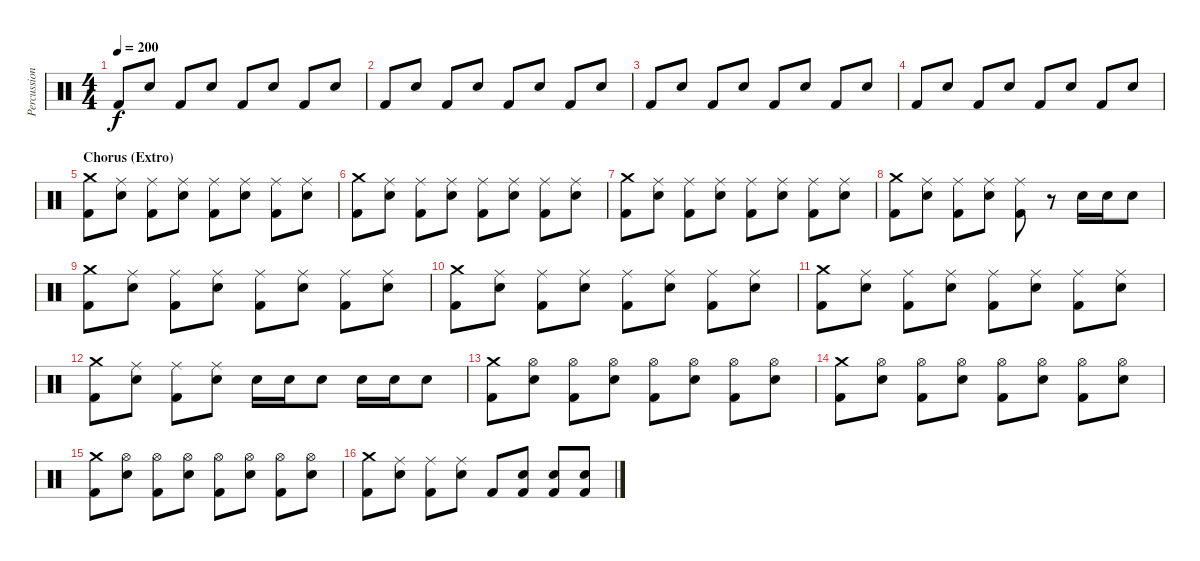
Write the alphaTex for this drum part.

\track ("Percussion" "Percussion") {instrument percussion}
\staff {score}
\articulation defaults
\ts (4 4)
\tempo 200
\clef neutral
\ks c "Kick (hit) 2".8{dy f} "Snare (hit) 2".8 "Kick (hit) 2".8 "Snare (hit) 2".8 "Kick (hit) 2".8 "Snare (hit) 2".8 "Kick (hit) 2".8 "Snare (hit) 2".8
|
"Kick (hit) 2".8 "Snare (hit) 2".8 "Kick (hit) 2".8 "Snare (hit) 2".8 "Kick (hit) 2".8 "Snare (hit) 2".8 "Kick (hit) 2".8 "Snare (hit) 2".8 |
"Kick (hit) 2".8 "Snare (hit) 2".8 "Kick (hit) 2".8 "Snare (hit) 2".8 "Kick (hit) 2".8 "Snare (hit) 2".8 "Kick (hit) 2".8 "Snare (hit) 2".8 |
"Kick (hit) 2".8 "Snare (hit) 2".8 "Kick (hit) 2".8 "Snare (hit) 2".8 "Kick (hit) 2".8 "Snare (hit) 2".8 "Kick (hit) 2".8 "Snare (hit) 2".8 |
\section ("" "Chorus (Extro)")
("Crash medium (hit)" "Kick (hit) 2").8 ("Ride (middle)" "Snare (hit) 2").8 ("Ride (middle)" "Kick (hit) 2").8 ("Ride (middle)" "Snare (hit) 2").8 ("Ride (middle)" "Kick (hit) 2").8 ("Ride (middle)" "Snare (hit) 2").8 ("Ride (middle)" "Kick (hit) 2").8 ("Ride (middle)" "Snare (hit) 2").8 |
("Crash medium (hit)" "Kick (hit) 2").8 ("Ride (middle)" "Snare (hit) 2").8 ("Ride (middle)" "Kick (hit) 2").8 ("Ride (middle)" "Snare (hit) 2").8 ("Ride (middle)" "Kick (hit) 2").8 ("Ride (middle)" "Snare (hit) 2").8 ("Ride (middle)" "Kick (hit) 2").8 ("Ride (middle)" "Snare (hit) 2").8 |
("Crash medium (hit)" "Kick (hit) 2").8 ("Ride (middle)" "Snare (hit) 2").8 ("Ride (middle)" "Kick (hit) 2").8 ("Ride (middle)" "Snare (hit) 2").8 ("Ride (middle)" "Kick (hit) 2").8 ("Ride (middle)" "Snare (hit) 2").8 ("Ride (middle)" "Kick (hit) 2").8 ("Ride (middle)" "Snare (hit) 2").8 |
("Crash medium (hit)" "Kick (hit) 2").8 ("Ride (middle)" "Snare (hit) 2").8 ("Ride (middle)" "Kick (hit) 2").8 ("Ride (middle)" "Snare (hit) 2").8 ("Ride (middle)" "Kick (hit) 2").8 r.8 "Snare (hit) 2".16 "Snare (hit) 2".16 "Snare (hit) 2".8 |
("Crash medium (hit)" "Kick (hit) 2").8 ("Ride (middle)" "Snare (hit) 2").8 ("Ride (middle)" "Kick (hit) 2").8 ("Ride (middle)" "Snare (hit) 2").8 ("Ride (middle)" "Kick (hit) 2").8 ("Ride (middle)" "Snare (hit) 2").8 ("Ride (middle)" "Kick (hit) 2").8 ("Ride (middle)" "Snare (hit) 2").8 |
("Crash medium (hit)" "Kick (hit) 2").8 ("Ride (middle)" "Snare (hit) 2").8 ("Ride (middle)" "Kick (hit) 2").8 ("Ride (middle)" "Snare (hit) 2").8 ("Ride (middle)" "Kick (hit) 2").8 ("Ride (middle)" "Snare (hit) 2").8 ("Ride (middle)" "Kick (hit) 2").8 ("Ride (middle)" "Snare (hit) 2").8 |
("Crash medium (hit)" "Kick (hit) 2").8 ("Ride (middle)" "Snare (hit) 2").8 ("Ride (middle)" "Kick (hit) 2").8 ("Ride (middle)" "Snare (hit) 2").8 ("Ride (middle)" "Kick (hit) 2").8 ("Ride (middle)" "Snare (hit) 2").8 ("Ride (middle)" "Kick (hit) 2").8 ("Ride (middle)" "Snare (hit) 2").8 |
("Crash medium (hit)" "Kick (hit) 2").8 ("Ride (middle)" "Snare (hit) 2").8 ("Ride (middle)" "Kick (hit) 2").8 ("Ride (middle)" "Snare (hit) 2").8 "Snare (hit) 2".16 "Snare (hit) 2".16 "Snare (hit) 2".8 "Snare (hit) 2".16 "Snare (hit) 2".16 "Snare (hit) 2".8 |
("Crash medium (hit)" "Kick (hit) 2").8 ("Hi-Hat (open)" "Snare (hit) 2").8 ("Hi-Hat (open)" "Kick (hit) 2").8 ("Hi-Hat (open)" "Snare (hit) 2").8 ("Hi-Hat (open)" "Kick (hit) 2").8 ("Hi-Hat (open)" "Snare (hit) 2").8 ("Hi-Hat (open)" "Kick (hit) 2").8 ("Hi-Hat (open)" "Snare (hit) 2").8 |
("Crash medium (hit)" "Kick (hit) 2").8 ("Hi-Hat (open)" "Snare (hit) 2").8 ("Hi-Hat (open)" "Kick (hit) 2").8 ("Hi-Hat (open)" "Snare (hit) 2").8 ("Hi-Hat (open)" "Kick (hit) 2").8 ("Hi-Hat (open)" "Snare (hit) 2").8 ("Hi-Hat (open)" "Kick (hit) 2").8 ("Hi-Hat (open)" "Snare (hit) 2").8 |
("Crash medium (hit)" "Kick (hit) 2").8 ("Hi-Hat (open)" "Snare (hit) 2").8 ("Hi-Hat (open)" "Kick (hit) 2").8 ("Hi-Hat (open)" "Snare (hit) 2").8 ("Hi-Hat (open)" "Kick (hit) 2").8 ("Hi-Hat (open)" "Snare (hit) 2").8 ("Hi-Hat (open)" "Kick (hit) 2").8 ("Hi-Hat (open)" "Snare (hit) 2").8 |
("Crash medium (hit)" "Kick (hit) 2").8 ("Ride (middle)" "Snare (hit) 2").8 ("Ride (middle)" "Kick (hit) 2").8 ("Ride (middle)" "Snare (hit) 2").8 "Kick (hit) 2".8 ("Snare (hit) 2" "Kick (hit) 2").8 ("Snare (hit) 2" "Kick (hit) 2").8 ("Snare (hit) 2" "Kick (hit) 2").8
